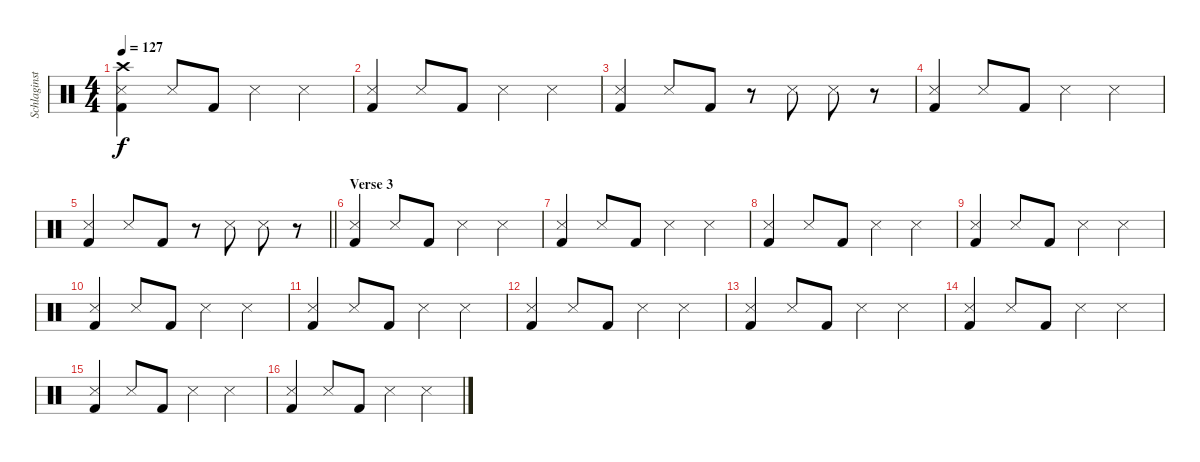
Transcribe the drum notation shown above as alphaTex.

\track ("Schlaginstrumente - Auswahl" "Schlaginst") {instrument percussion}
\staff {score}
\articulation defaults
\ts (4 4)
\tempo 127
\clef neutral
\ks c
("Crash high (hit)" "Snare (side stick) 3" "Kick (hit) 2").4{dy f} "Snare (side stick) 3".8 "Kick (hit) 2".8 "Snare (side stick) 3".4 "Snare (side stick) 3".4 |
("Snare (side stick) 3" "Kick (hit) 2").4 "Snare (side stick) 3".8 "Kick (hit) 2".8 "Snare (side stick) 3".4 "Snare (side stick) 3".4 |
("Snare (side stick) 3" "Kick (hit) 2").4 "Snare (side stick) 3".8 "Kick (hit) 2".8 r.8 "Snare (side stick) 3".8 "Snare (side stick) 3".8 r.8 |
("Snare (side stick) 3" "Kick (hit) 2").4 "Snare (side stick) 3".8 "Kick (hit) 2".8 "Snare (side stick) 3".4 "Snare (side stick) 3".4 |
\barLineRight lightlight
("Snare (side stick) 3" "Kick (hit) 2").4 "Snare (side stick) 3".8 "Kick (hit) 2".8 r.8 "Snare (side stick) 3".8 "Snare (side stick) 3".8 r.8 |
\section ("" "Verse 3")
("Snare (side stick) 3" "Kick (hit) 2").4 "Snare (side stick) 3".8 "Kick (hit) 2".8 "Snare (side stick) 3".4 "Snare (side stick) 3".4 |
("Snare (side stick) 3" "Kick (hit) 2").4 "Snare (side stick) 3".8 "Kick (hit) 2".8 "Snare (side stick) 3".4 "Snare (side stick) 3".4 |
("Snare (side stick) 3" "Kick (hit) 2").4 "Snare (side stick) 3".8 "Kick (hit) 2".8 "Snare (side stick) 3".4 "Snare (side stick) 3".4 |
("Snare (side stick) 3" "Kick (hit) 2").4 "Snare (side stick) 3".8 "Kick (hit) 2".8 "Snare (side stick) 3".4 "Snare (side stick) 3".4 |
("Snare (side stick) 3" "Kick (hit) 2").4 "Snare (side stick) 3".8 "Kick (hit) 2".8 "Snare (side stick) 3".4 "Snare (side stick) 3".4 |
("Snare (side stick) 3" "Kick (hit) 2").4 "Snare (side stick) 3".8 "Kick (hit) 2".8 "Snare (side stick) 3".4 "Snare (side stick) 3".4 |
("Snare (side stick) 3" "Kick (hit) 2").4 "Snare (side stick) 3".8 "Kick (hit) 2".8 "Snare (side stick) 3".4 "Snare (side stick) 3".4 |
("Snare (side stick) 3" "Kick (hit) 2").4 "Snare (side stick) 3".8 "Kick (hit) 2".8 "Snare (side stick) 3".4 "Snare (side stick) 3".4 |
("Snare (side stick) 3" "Kick (hit) 2").4 "Snare (side stick) 3".8 "Kick (hit) 2".8 "Snare (side stick) 3".4 "Snare (side stick) 3".4 |
("Snare (side stick) 3" "Kick (hit) 2").4 "Snare (side stick) 3".8 "Kick (hit) 2".8 "Snare (side stick) 3".4 "Snare (side stick) 3".4 |
("Snare (side stick) 3" "Kick (hit) 2").4 "Snare (side stick) 3".8 "Kick (hit) 2".8 "Snare (side stick) 3".4 "Snare (side stick) 3".4
